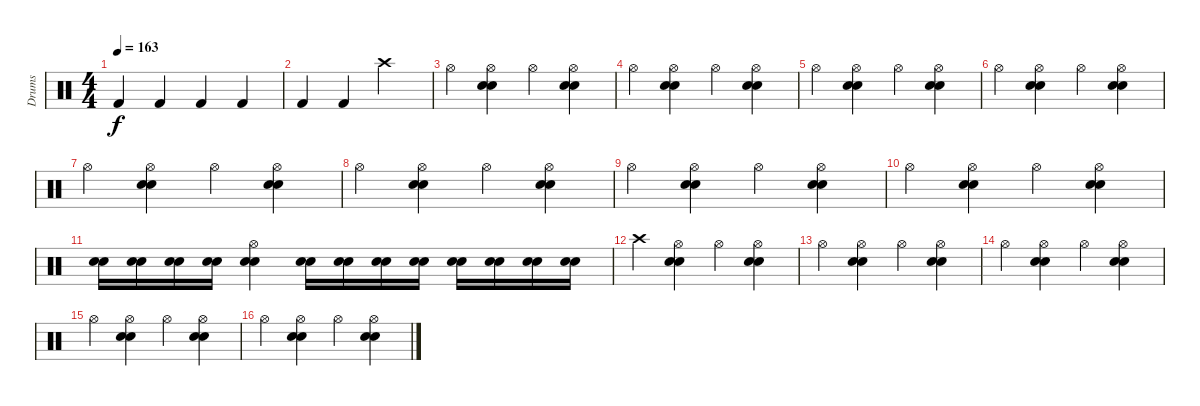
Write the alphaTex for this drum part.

\track ("Drums" "Drums") {instrument percussion}
\staff {score}
\articulation defaults
\ts (4 4)
\tempo 163
\clef neutral
\ks c "Kick (hit) 2".4{dy f} "Kick (hit) 2".4 "Kick (hit) 2".4 "Kick (hit) 2".4
|
"Kick (hit) 2".4 "Kick (hit) 2".4 "Crash high (hit)".2 |
"Hi-Hat (open)".4 ("Hi-Hat (open)" "Electric Snare (hit)" "Electric Snare (hit)").4 "Hi-Hat (open)".4 ("Hi-Hat (open)" "Electric Snare (hit)" "Electric Snare (hit)").4 |
"Hi-Hat (open)".4 ("Hi-Hat (open)" "Electric Snare (hit)" "Electric Snare (hit)").4 "Hi-Hat (open)".4 ("Hi-Hat (open)" "Electric Snare (hit)" "Electric Snare (hit)").4 |
"Hi-Hat (open)".4 ("Hi-Hat (open)" "Electric Snare (hit)" "Electric Snare (hit)").4 "Hi-Hat (open)".4 ("Hi-Hat (open)" "Electric Snare (hit)" "Electric Snare (hit)").4 |
"Hi-Hat (open)".4 ("Hi-Hat (open)" "Electric Snare (hit)" "Electric Snare (hit)").4 "Hi-Hat (open)".4 ("Hi-Hat (open)" "Electric Snare (hit)" "Electric Snare (hit)").4 |
"Hi-Hat (open)".4 ("Hi-Hat (open)" "Electric Snare (hit)" "Electric Snare (hit)").4 "Hi-Hat (open)".4 ("Hi-Hat (open)" "Electric Snare (hit)" "Electric Snare (hit)").4 |
"Hi-Hat (open)".4 ("Hi-Hat (open)" "Electric Snare (hit)" "Electric Snare (hit)").4 "Hi-Hat (open)".4 ("Hi-Hat (open)" "Electric Snare (hit)" "Electric Snare (hit)").4 |
"Hi-Hat (open)".4 ("Hi-Hat (open)" "Electric Snare (hit)" "Electric Snare (hit)").4 "Hi-Hat (open)".4 ("Hi-Hat (open)" "Electric Snare (hit)" "Electric Snare (hit)").4 |
"Hi-Hat (open)".4 ("Hi-Hat (open)" "Electric Snare (hit)" "Electric Snare (hit)").4 "Hi-Hat (open)".4 ("Hi-Hat (open)" "Electric Snare (hit)" "Electric Snare (hit)").4 |
("Electric Snare (hit)" "Electric Snare (hit)").16 ("Electric Snare (hit)" "Electric Snare (hit)").16 ("Electric Snare (hit)" "Electric Snare (hit)").16 ("Electric Snare (hit)" "Electric Snare (hit)").16 ("Hi-Hat (open)" "Electric Snare (hit)" "Electric Snare (hit)").4 ("Electric Snare (hit)" "Electric Snare (hit)").16 ("Electric Snare (hit)" "Electric Snare (hit)").16 ("Electric Snare (hit)" "Electric Snare (hit)").16 ("Electric Snare (hit)" "Electric Snare (hit)").16 ("Electric Snare (hit)" "Electric Snare (hit)").16 ("Electric Snare (hit)" "Electric Snare (hit)").16 ("Electric Snare (hit)" "Electric Snare (hit)").16 ("Electric Snare (hit)" "Electric Snare (hit)").16 |
"Crash high (hit)".4 ("Hi-Hat (open)" "Electric Snare (hit)" "Electric Snare (hit)").4 "Hi-Hat (open)".4 ("Hi-Hat (open)" "Electric Snare (hit)" "Electric Snare (hit)").4 |
"Hi-Hat (open)".4 ("Hi-Hat (open)" "Electric Snare (hit)" "Electric Snare (hit)").4 "Hi-Hat (open)".4 ("Hi-Hat (open)" "Electric Snare (hit)" "Electric Snare (hit)").4 |
"Hi-Hat (open)".4 ("Hi-Hat (open)" "Electric Snare (hit)" "Electric Snare (hit)").4 "Hi-Hat (open)".4 ("Hi-Hat (open)" "Electric Snare (hit)" "Electric Snare (hit)").4 |
"Hi-Hat (open)".4 ("Hi-Hat (open)" "Electric Snare (hit)" "Electric Snare (hit)").4 "Hi-Hat (open)".4 ("Hi-Hat (open)" "Electric Snare (hit)" "Electric Snare (hit)").4 |
"Hi-Hat (open)".4 ("Hi-Hat (open)" "Electric Snare (hit)" "Electric Snare (hit)").4 "Hi-Hat (open)".4 ("Hi-Hat (open)" "Electric Snare (hit)" "Electric Snare (hit)").4
